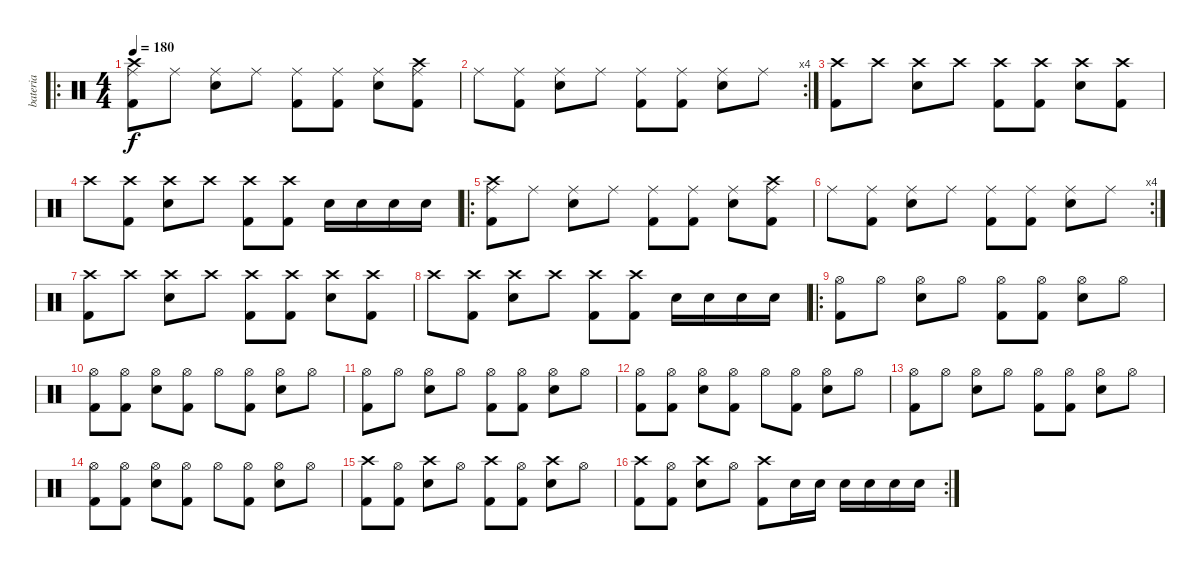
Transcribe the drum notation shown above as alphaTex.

\track ("bateria" "bateria") {instrument percussion}
\staff {score}
\articulation defaults
\ro
\ts (4 4)
\tempo 180
\clef neutral
\ks c
("Ride (middle)" "Kick (hit) 2" "Crash high (hit)").8{dy f} "Ride (middle)".8 ("Ride (middle)" "Electric Snare (hit)").8 "Ride (middle)".8 ("Ride (middle)" "Kick (hit) 2").8 ("Ride (middle)" "Kick (hit) 2").8 ("Ride (middle)" "Electric Snare (hit)").8 ("Ride (middle)" "Kick (hit) 2" "Crash high (hit)").8 |
\rc 4 "Ride (middle)".8
("Ride (middle)" "Kick (hit) 2").8 ("Ride (middle)" "Electric Snare (hit)").8 "Ride (middle)".8 ("Ride (middle)" "Kick (hit) 2").8 ("Ride (middle)" "Kick (hit) 2").8 ("Ride (middle)" "Electric Snare (hit)").8 "Ride (middle)".8 |
("Crash high (hit)" "Kick (hit) 2").8 "Crash high (hit)"{x}.8 ("Crash high (hit)" "Electric Snare (hit)").8 "Crash high (hit)"{x}.8 ("Crash high (hit)" "Kick (hit) 2").8 ("Crash high (hit)"{x} "Kick (hit) 2").8 ("Crash high (hit)" "Electric Snare (hit)").8 ("Crash high (hit)"{x} "Kick (hit) 2").8 |
"Crash high (hit)".8 ("Crash high (hit)"{x} "Kick (hit) 2").8 ("Crash high (hit)" "Electric Snare (hit)").8 "Crash high (hit)"{x}.8 ("Crash high (hit)" "Kick (hit) 2").8 ("Crash high (hit)"{x} "Kick (hit) 2").8 "Electric Snare (hit)".16 "Electric Snare (hit)".16 "Electric Snare (hit)".16 "Electric Snare (hit)".16 |
\ro
("Ride (middle)" "Kick (hit) 2" "Crash high (hit)").8 "Ride (middle)".8 ("Ride (middle)" "Electric Snare (hit)").8 "Ride (middle)".8 ("Ride (middle)" "Kick (hit) 2").8 ("Ride (middle)" "Kick (hit) 2").8 ("Ride (middle)" "Electric Snare (hit)").8 ("Ride (middle)" "Kick (hit) 2" "Crash high (hit)").8 |
\rc 4 "Ride (middle)".8
("Ride (middle)" "Kick (hit) 2").8 ("Ride (middle)" "Electric Snare (hit)").8 "Ride (middle)".8 ("Ride (middle)" "Kick (hit) 2").8 ("Ride (middle)" "Kick (hit) 2").8 ("Ride (middle)" "Electric Snare (hit)").8 "Ride (middle)".8 |
("Crash high (hit)" "Kick (hit) 2").8 "Crash high (hit)"{x}.8 ("Crash high (hit)" "Electric Snare (hit)").8 "Crash high (hit)"{x}.8 ("Crash high (hit)" "Kick (hit) 2").8 ("Crash high (hit)"{x} "Kick (hit) 2").8 ("Crash high (hit)" "Electric Snare (hit)").8 ("Crash high (hit)"{x} "Kick (hit) 2").8 |
"Crash high (hit)".8 ("Crash high (hit)"{x} "Kick (hit) 2").8 ("Crash high (hit)" "Electric Snare (hit)").8 "Crash high (hit)"{x}.8 ("Crash high (hit)" "Kick (hit) 2").8 ("Crash high (hit)"{x} "Kick (hit) 2").8 "Electric Snare (hit)".16 "Electric Snare (hit)".16 "Electric Snare (hit)".16 "Electric Snare (hit)".16 |
\ro
("Hi-Hat (open)" "Kick (hit) 2").8 "Hi-Hat (open)"{x}.8 ("Hi-Hat (open)" "Electric Snare (hit)").8 "Hi-Hat (open)"{x}.8 ("Hi-Hat (open)" "Kick (hit) 2").8 ("Hi-Hat (open)"{x} "Kick (hit) 2").8 ("Hi-Hat (open)" "Electric Snare (hit)").8 "Hi-Hat (open)"{x}.8 |
("Hi-Hat (open)" "Kick (hit) 2").8 ("Hi-Hat (open)"{x} "Kick (hit) 2").8 ("Hi-Hat (open)" "Electric Snare (hit)").8 ("Hi-Hat (open)"{x} "Kick (hit) 2").8 "Hi-Hat (open)".8 ("Hi-Hat (open)"{x} "Kick (hit) 2").8 ("Hi-Hat (open)" "Electric Snare (hit)").8 "Hi-Hat (open)"{x}.8 |
("Hi-Hat (open)" "Kick (hit) 2").8 "Hi-Hat (open)"{x}.8 ("Hi-Hat (open)" "Electric Snare (hit)").8 "Hi-Hat (open)"{x}.8 ("Hi-Hat (open)" "Kick (hit) 2").8 ("Hi-Hat (open)"{x} "Kick (hit) 2").8 ("Hi-Hat (open)" "Electric Snare (hit)").8 "Hi-Hat (open)"{x}.8 |
("Hi-Hat (open)" "Kick (hit) 2").8 ("Hi-Hat (open)"{x} "Kick (hit) 2").8 ("Hi-Hat (open)" "Electric Snare (hit)").8 ("Hi-Hat (open)"{x} "Kick (hit) 2").8 "Hi-Hat (open)".8 ("Hi-Hat (open)"{x} "Kick (hit) 2").8 ("Hi-Hat (open)" "Electric Snare (hit)").8 "Hi-Hat (open)"{x}.8 |
("Hi-Hat (open)" "Kick (hit) 2").8 "Hi-Hat (open)"{x}.8 ("Hi-Hat (open)" "Electric Snare (hit)").8 "Hi-Hat (open)"{x}.8 ("Hi-Hat (open)" "Kick (hit) 2").8 ("Hi-Hat (open)"{x} "Kick (hit) 2").8 ("Hi-Hat (open)" "Electric Snare (hit)").8 "Hi-Hat (open)"{x}.8 |
("Hi-Hat (open)" "Kick (hit) 2").8 ("Hi-Hat (open)"{x} "Kick (hit) 2").8 ("Hi-Hat (open)" "Electric Snare (hit)").8 ("Hi-Hat (open)"{x} "Kick (hit) 2").8 "Hi-Hat (open)".8 ("Hi-Hat (open)"{x} "Kick (hit) 2").8 ("Hi-Hat (open)" "Electric Snare (hit)").8 "Hi-Hat (open)"{x}.8 |
("Crash high (hit)" "Kick (hit) 2").8 ("Hi-Hat (open)"{x} "Kick (hit) 2").8 ("Crash high (hit)" "Electric Snare (hit)").8 "Hi-Hat (open)"{x}.8 ("Crash high (hit)" "Kick (hit) 2").8 ("Hi-Hat (open)"{x} "Kick (hit) 2").8 ("Crash high (hit)" "Electric Snare (hit)").8 "Hi-Hat (open)"{x}.8 |
\rc 2
("Crash high (hit)" "Kick (hit) 2").8 ("Hi-Hat (open)"{x} "Kick (hit) 2").8 ("Crash high (hit)" "Electric Snare (hit)").8 "Hi-Hat (open)"{x}.8 ("Crash high (hit)" "Kick (hit) 2").8 "Electric Snare (hit)".16 "Electric Snare (hit)".16 "Electric Snare (hit)".16 "Electric Snare (hit)".16 "Electric Snare (hit)".16 "Electric Snare (hit)".16
